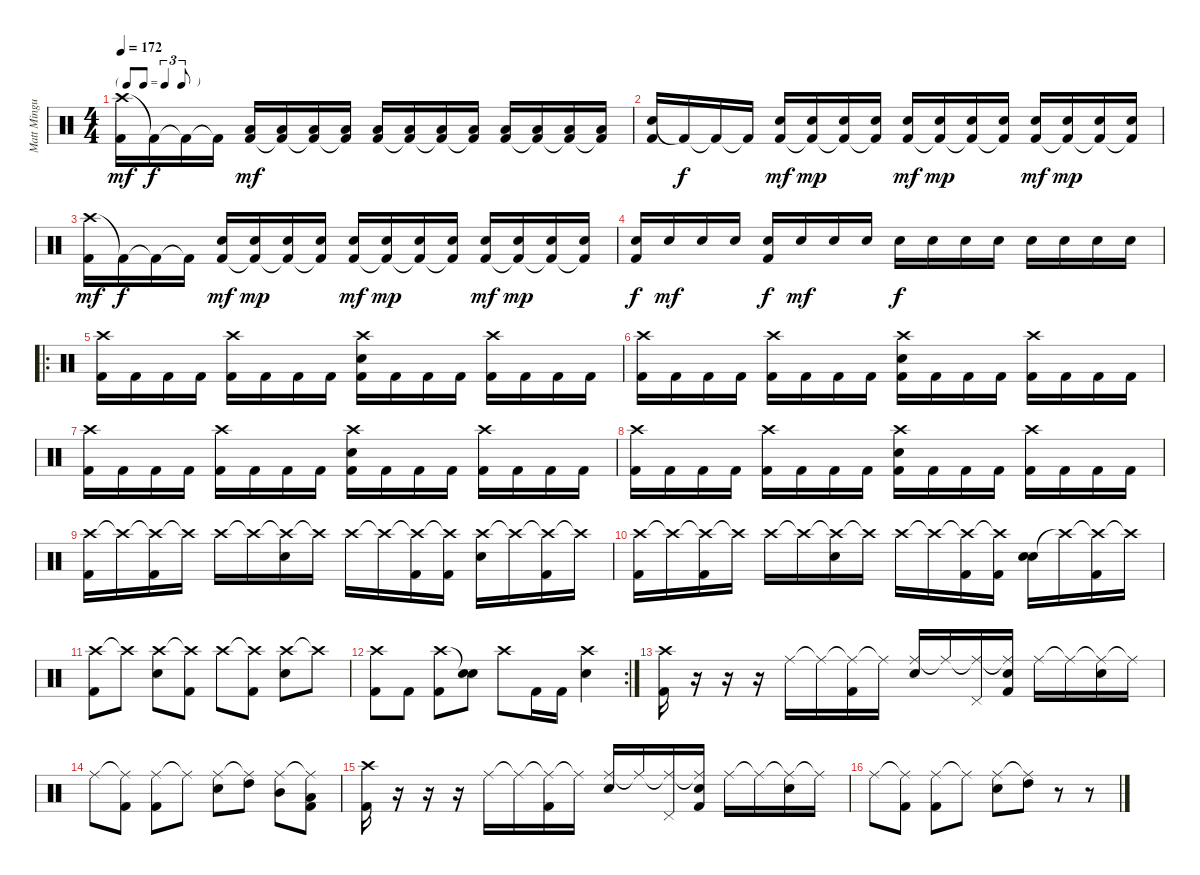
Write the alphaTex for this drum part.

\track ("Matt Mingus" "Matt Mingu") {instrument percussion}
\staff {score}
\articulation defaults
\ts (4 4)
\tf triplet8th
\tempo 172
\clef neutral
\ks c
("Crash high (hit)" "Kick (hit) 2").16{dy mf} "Kick (hit) 2"{t}.16{dy f} "Kick (hit) 2"{t}.16 "Kick (hit) 2"{t}.16 ("Low Floor Tom (hit)" "Kick (hit) 2").16{dy mf} ("Low Floor Tom (hit)" "Kick (hit) 2"{t}).16 ("Low Floor Tom (hit)" "Kick (hit) 2"{t}).16 ("Low Floor Tom (hit)" "Kick (hit) 2"{t}).16 ("Low Floor Tom (hit)" "Kick (hit) 2").16 ("Low Floor Tom (hit)" "Kick (hit) 2"{t}).16 ("Low Floor Tom (hit)" "Kick (hit) 2"{t}).16 ("Low Floor Tom (hit)" "Kick (hit) 2"{t}).16 ("Low Floor Tom (hit)" "Kick (hit) 2").16 ("Low Floor Tom (hit)" "Kick (hit) 2"{t}).16 ("Low Floor Tom (hit)" "Kick (hit) 2"{t}).16 ("Low Floor Tom (hit)" "Kick (hit) 2"{t}).16 |
("Electric Snare (hit)" "Kick (hit) 2").16 "Kick (hit) 2"{t}.16{dy f} "Kick (hit) 2"{t}.16 "Kick (hit) 2"{t}.16 ("Electric Snare (hit)" "Kick (hit) 2").16{dy mf} ("Electric Snare (hit)" "Kick (hit) 2"{t}).16{dy mp} ("Electric Snare (hit)" "Kick (hit) 2"{t}).16 ("Electric Snare (hit)" "Kick (hit) 2"{t}).16 ("Electric Snare (hit)" "Kick (hit) 2").16{dy mf} ("Electric Snare (hit)" "Kick (hit) 2"{t}).16{dy mp} ("Electric Snare (hit)" "Kick (hit) 2"{t}).16 ("Electric Snare (hit)" "Kick (hit) 2"{t}).16 ("Electric Snare (hit)" "Kick (hit) 2").16{dy mf} ("Electric Snare (hit)" "Kick (hit) 2"{t}).16{dy mp} ("Electric Snare (hit)" "Kick (hit) 2"{t}).16 ("Electric Snare (hit)" "Kick (hit) 2"{t}).16 |
("Crash high (hit)" "Kick (hit) 2").16{dy mf} "Kick (hit) 2"{t}.16{dy f} "Kick (hit) 2"{t}.16 "Kick (hit) 2"{t}.16 ("Electric Snare (hit)" "Kick (hit) 2").16{dy mf} ("Electric Snare (hit)" "Kick (hit) 2"{t}).16{dy mp} ("Electric Snare (hit)" "Kick (hit) 2"{t}).16 ("Electric Snare (hit)" "Kick (hit) 2"{t}).16 ("Electric Snare (hit)" "Kick (hit) 2").16{dy mf} ("Electric Snare (hit)" "Kick (hit) 2"{t}).16{dy mp} ("Electric Snare (hit)" "Kick (hit) 2"{t}).16 ("Electric Snare (hit)" "Kick (hit) 2"{t}).16 ("Electric Snare (hit)" "Kick (hit) 2").16{dy mf} ("Electric Snare (hit)" "Kick (hit) 2"{t}).16{dy mp} ("Electric Snare (hit)" "Kick (hit) 2"{t}).16 ("Electric Snare (hit)" "Kick (hit) 2"{t}).16 |
("Electric Snare (hit)" "Kick (hit) 2").16{dy f} "Electric Snare (hit)".16{dy mf} "Electric Snare (hit)".16 "Electric Snare (hit)".16 ("Electric Snare (hit)" "Kick (hit) 2").16{dy f} "Electric Snare (hit)".16{dy mf} "Electric Snare (hit)".16 "Electric Snare (hit)".16 "Electric Snare (hit)".16{dy f} "Electric Snare (hit)".16 "Electric Snare (hit)".16 "Electric Snare (hit)".16 "Electric Snare (hit)".16 "Electric Snare (hit)".16 "Electric Snare (hit)".16 "Electric Snare (hit)".16 |
\ro
("Crash high (hit)" "Kick (hit) 2").16 "Kick (hit) 2".16 "Kick (hit) 2".16 "Kick (hit) 2".16 ("Crash high (hit)" "Kick (hit) 2").16 "Kick (hit) 2".16 "Kick (hit) 2".16 "Kick (hit) 2".16 ("Crash high (hit)" "Electric Snare (hit)" "Kick (hit) 2").16 "Kick (hit) 2".16 "Kick (hit) 2".16 "Kick (hit) 2".16 ("Crash high (hit)" "Kick (hit) 2").16 "Kick (hit) 2".16 "Kick (hit) 2".16 "Kick (hit) 2".16 |
("Crash high (hit)" "Kick (hit) 2").16 "Kick (hit) 2".16 "Kick (hit) 2".16 "Kick (hit) 2".16 ("Crash high (hit)" "Kick (hit) 2").16 "Kick (hit) 2".16 "Kick (hit) 2".16 "Kick (hit) 2".16 ("Crash high (hit)" "Electric Snare (hit)" "Kick (hit) 2").16 "Kick (hit) 2".16 "Kick (hit) 2".16 "Kick (hit) 2".16 ("Crash high (hit)" "Kick (hit) 2").16 "Kick (hit) 2".16 "Kick (hit) 2".16 "Kick (hit) 2".16 |
("Crash high (hit)" "Kick (hit) 2").16 "Kick (hit) 2".16 "Kick (hit) 2".16 "Kick (hit) 2".16 ("Crash high (hit)" "Kick (hit) 2").16 "Kick (hit) 2".16 "Kick (hit) 2".16 "Kick (hit) 2".16 ("Crash high (hit)" "Electric Snare (hit)" "Kick (hit) 2").16 "Kick (hit) 2".16 "Kick (hit) 2".16 "Kick (hit) 2".16 ("Crash high (hit)" "Kick (hit) 2").16 "Kick (hit) 2".16 "Kick (hit) 2".16 "Kick (hit) 2".16 |
("Crash high (hit)" "Kick (hit) 2").16 "Kick (hit) 2".16 "Kick (hit) 2".16 "Kick (hit) 2".16 ("Crash high (hit)" "Kick (hit) 2").16 "Kick (hit) 2".16 "Kick (hit) 2".16 "Kick (hit) 2".16 ("Crash high (hit)" "Electric Snare (hit)" "Kick (hit) 2").16 "Kick (hit) 2".16 "Kick (hit) 2".16 "Kick (hit) 2".16 ("Crash high (hit)" "Kick (hit) 2").16 "Kick (hit) 2".16 "Kick (hit) 2".16 "Kick (hit) 2".16 |
("Crash high (hit)" "Kick (hit) 2").16 "Crash high (hit)"{t}.16 ("Crash high (hit)"{t} "Kick (hit) 2").16 "Crash high (hit)"{t}.16 "Crash high (hit)".16 "Crash high (hit)"{t}.16 ("Crash high (hit)"{t} "Electric Snare (hit)").16 "Crash high (hit)"{t}.16 "Crash high (hit)".16 "Crash high (hit)"{t}.16 ("Crash high (hit)"{t} "Kick (hit) 2").16 ("Crash high (hit)"{t} "Kick (hit) 2").16 ("Crash high (hit)" "Electric Snare (hit)").16 "Crash high (hit)"{t}.16 ("Crash high (hit)"{t} "Kick (hit) 2").16 "Crash high (hit)"{t}.16 |
("Crash high (hit)" "Kick (hit) 2").16 "Crash high (hit)"{t}.16 ("Crash high (hit)"{t} "Kick (hit) 2").16 "Crash high (hit)"{t}.16 "Crash high (hit)".16 "Crash high (hit)"{t}.16 ("Crash high (hit)"{t} "Electric Snare (hit)").16 "Crash high (hit)"{t}.16 "Crash high (hit)".16 "Crash high (hit)"{t}.16 ("Crash high (hit)"{t} "Kick (hit) 2").16 ("Crash high (hit)"{t} "Kick (hit) 2").16 ("Snare (hit) 2" "Electric Snare (hit)").16 "Crash high (hit)"{t}.16 ("Crash high (hit)"{t} "Kick (hit) 2").16 "Crash high (hit)"{t}.16 |
("Crash high (hit)" "Kick (hit) 2").8 "Crash high (hit)"{t}.8 ("Crash high (hit)" "Electric Snare (hit)").8 ("Crash high (hit)"{t} "Kick (hit) 2").8 "Crash high (hit)".8 ("Crash high (hit)"{t} "Kick (hit) 2").8 ("Crash high (hit)" "Electric Snare (hit)").8 "Crash high (hit)"{t}.8 |
\rc 2
("Crash high (hit)" "Kick (hit) 2").8 "Kick (hit) 2".8 ("Crash high (hit)" "Kick (hit) 2").8 ("Snare (hit)"{t} "Electric Snare (hit)").8 "Crash high (hit)".8 "Kick (hit) 2".16 "Kick (hit) 2".16 ("Crash high (hit)" "Electric Snare (hit)").4 |
("Crash high (hit)" "Kick (hit) 2").16 r.16 r.16 r.16 "Ride (middle)".16 "Ride (middle)"{t}.16 ("Ride (middle)"{t} "Kick (hit) 2").16 "Ride (middle)"{t}.16 ("Ride (middle)" "Electric Snare (hit)").16 "Ride (middle)"{t}.16 ("Ride (middle)"{t} "Pedal Hi-Hat (hit)").16 ("Ride (middle)"{t} "Electric Snare (hit)" "Kick (hit) 2").16 "Ride (middle)".16 "Ride (middle)"{t}.16 ("Ride (middle)"{t} "Electric Snare (hit)").16 "Ride (middle)"{t}.16 |
"Ride (middle)".8 ("Ride (middle)"{t} "Kick (hit) 2").8 ("Ride (middle)" "Kick (hit) 2").8 "Ride (middle)"{t}.8 ("Ride (middle)" "Electric Snare (hit)").8 ("Ride (middle)"{t} "High Tom (hit)").8 ("Ride (middle)" "Mid Tom (hit)").8 ("Ride (middle)"{t} "Low Floor Tom (hit)" "Kick (hit) 2").8 |
("Crash high (hit)" "Kick (hit) 2").16 r.16 r.16 r.16 "Ride (middle)".16 "Ride (middle)"{t}.16 ("Ride (middle)"{t} "Kick (hit) 2").16 "Ride (middle)"{t}.16 ("Ride (middle)" "Electric Snare (hit)").16 "Ride (middle)"{t}.16 ("Ride (middle)"{t} "Pedal Hi-Hat (hit)").16 ("Ride (middle)"{t} "Electric Snare (hit)" "Kick (hit) 2").16 "Ride (middle)".16 "Ride (middle)"{t}.16 ("Ride (middle)"{t} "Electric Snare (hit)").16 "Ride (middle)"{t}.16 |
"Ride (middle)".8 ("Ride (middle)"{t} "Kick (hit) 2").8 ("Ride (middle)" "Kick (hit) 2").8 "Ride (middle)"{t}.8 ("Ride (middle)" "Electric Snare (hit)").8 ("Ride (middle)"{t} "High Tom (hit)").8 r.8 r.8
